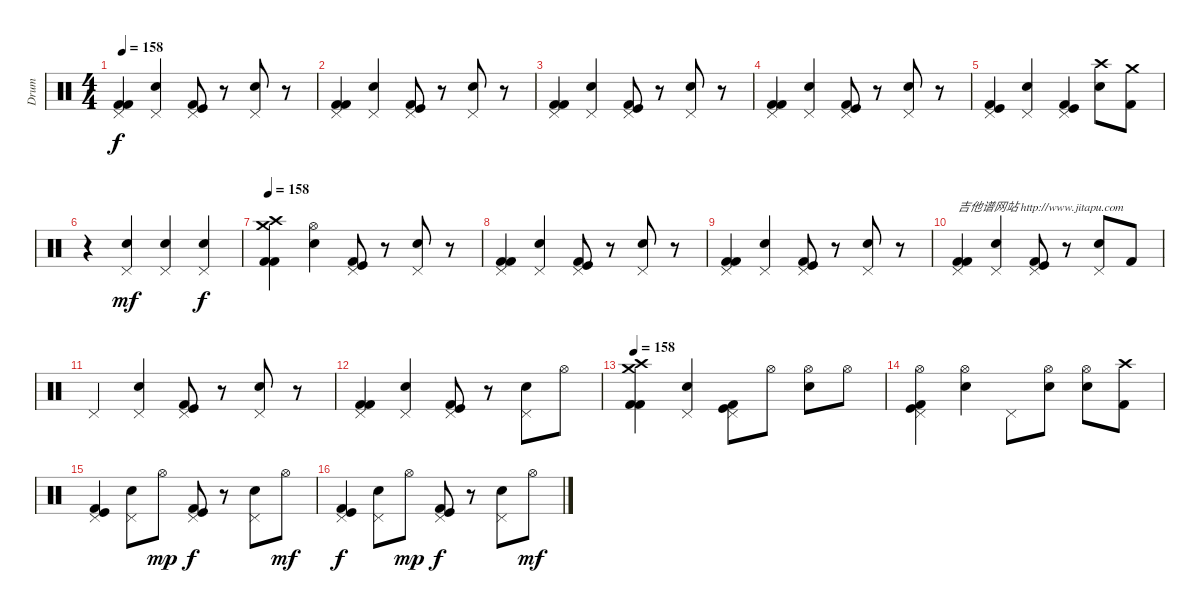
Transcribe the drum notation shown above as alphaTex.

\track ("Drum" "Drum") {instrument percussion}
\staff {score}
\articulation defaults
\ts (4 4)
\tempo 158
\clef neutral
\ks c
("Pedal Hi-Hat (hit)" "Kick (hit) 2" "Kick (hit) 2").4{dy f} ("Pedal Hi-Hat (hit)" "Electric Snare (hit)").4 ("Pedal Hi-Hat (hit)" "Kick (hit) 2" "Kick (hit)").8 r.8 ("Pedal Hi-Hat (hit)" "Electric Snare (hit)").8 r.8 |
("Pedal Hi-Hat (hit)" "Kick (hit) 2" "Kick (hit) 2").4 ("Pedal Hi-Hat (hit)" "Electric Snare (hit)").4 ("Pedal Hi-Hat (hit)" "Kick (hit) 2" "Kick (hit)").8 r.8 ("Pedal Hi-Hat (hit)" "Electric Snare (hit)").8 r.8 |
("Pedal Hi-Hat (hit)" "Kick (hit) 2" "Kick (hit) 2").4 ("Pedal Hi-Hat (hit)" "Electric Snare (hit)").4 ("Pedal Hi-Hat (hit)" "Kick (hit) 2" "Kick (hit)").8 r.8 ("Pedal Hi-Hat (hit)" "Electric Snare (hit)").8 r.8 |
("Pedal Hi-Hat (hit)" "Kick (hit) 2" "Kick (hit) 2").4 ("Pedal Hi-Hat (hit)" "Electric Snare (hit)").4 ("Pedal Hi-Hat (hit)" "Kick (hit) 2" "Kick (hit)").8 r.8 ("Pedal Hi-Hat (hit)" "Electric Snare (hit)").8 r.8 |
("Pedal Hi-Hat (hit)" "Kick (hit) 2" "Kick (hit)").4 ("Electric Snare (hit)" "Pedal Hi-Hat (hit)").4 ("Kick (hit) 2" "Kick (hit)" "Pedal Hi-Hat (hit)").4 ("Crash high (hit)" "Electric Snare (hit)").8 ("Crash medium (hit)" "Kick (hit) 2").8 |
r.4 ("Pedal Hi-Hat (hit)" "Electric Snare (hit)").4{dy mf} ("Pedal Hi-Hat (hit)" "Electric Snare (hit)").4 ("Pedal Hi-Hat (hit)" "Electric Snare (hit)").4{dy f} |
\tempo 158
("Crash high (hit)" "Kick (hit) 2" "Kick (hit) 2" "Crash medium (hit)").4 ("Hi-Hat (open)" "Electric Snare (hit)").4 ("Pedal Hi-Hat (hit)" "Kick (hit) 2" "Kick (hit)").8 r.8 ("Pedal Hi-Hat (hit)" "Electric Snare (hit)").8 r.8 |
("Pedal Hi-Hat (hit)" "Kick (hit) 2" "Kick (hit) 2").4 ("Pedal Hi-Hat (hit)" "Electric Snare (hit)").4 ("Pedal Hi-Hat (hit)" "Kick (hit) 2" "Kick (hit)").8 r.8 ("Pedal Hi-Hat (hit)" "Electric Snare (hit)").8 r.8 |
("Pedal Hi-Hat (hit)" "Kick (hit) 2" "Kick (hit) 2").4 ("Pedal Hi-Hat (hit)" "Electric Snare (hit)").4 ("Pedal Hi-Hat (hit)" "Kick (hit) 2" "Kick (hit)").8 r.8 ("Pedal Hi-Hat (hit)" "Electric Snare (hit)").8 r.8 |
("Pedal Hi-Hat (hit)" "Kick (hit) 2" "Kick (hit) 2").4{txt "吉他谱网站 http://www.jitapu.com"} ("Pedal Hi-Hat (hit)" "Electric Snare (hit)").4 ("Pedal Hi-Hat (hit)" "Kick (hit) 2" "Kick (hit)").8 r.8 ("Pedal Hi-Hat (hit)" "Electric Snare (hit)").8 "Kick (hit) 2".8 |
"Pedal Hi-Hat (hit)".4 ("Pedal Hi-Hat (hit)" "Electric Snare (hit)").4 ("Pedal Hi-Hat (hit)" "Kick (hit) 2" "Kick (hit)").8 r.8 ("Pedal Hi-Hat (hit)" "Electric Snare (hit)").8 r.8 |
("Pedal Hi-Hat (hit)" "Kick (hit) 2" "Kick (hit) 2").4 ("Pedal Hi-Hat (hit)" "Electric Snare (hit)").4 ("Pedal Hi-Hat (hit)" "Kick (hit) 2" "Kick (hit)").8 r.8 ("Pedal Hi-Hat (hit)" "Electric Snare (hit)").8 "Hi-Hat (open)".8 |
\tempo 158
("Crash high (hit)" "Kick (hit) 2" "Kick (hit) 2" "Crash medium (hit)").4 ("Pedal Hi-Hat (hit)" "Electric Snare (hit)").4 ("Pedal Hi-Hat (hit)" "Kick (hit) 2" "Kick (hit)").8 "Hi-Hat (open)".8 ("Hi-Hat (open)" "Electric Snare (hit)").8 "Hi-Hat (open)".8 |
("Hi-Hat (open)" "Pedal Hi-Hat (hit)" "Kick (hit) 2" "Kick (hit)").4 ("Hi-Hat (open)" "Electric Snare (hit)").4 "Pedal Hi-Hat (hit)".8 ("Hi-Hat (open)" "Electric Snare (hit)").8 ("Hi-Hat (open)" "Electric Snare (hit)").8 ("Crash high (hit)" "Kick (hit) 2").8 |
("Pedal Hi-Hat (hit)" "Kick (hit)" "Kick (hit) 2").4 ("Electric Snare (hit)" "Pedal Hi-Hat (hit)").8 "Hi-Hat (open)".8{dy mp} ("Kick (hit) 2" "Kick (hit)" "Pedal Hi-Hat (hit)").8{dy f} r.8 ("Pedal Hi-Hat (hit)" "Electric Snare (hit)").8 "Hi-Hat (open)".8{dy mf} |
("Pedal Hi-Hat (hit)" "Kick (hit)" "Kick (hit) 2").4{dy f} ("Electric Snare (hit)" "Pedal Hi-Hat (hit)").8 "Hi-Hat (open)".8{dy mp} ("Kick (hit) 2" "Kick (hit)" "Pedal Hi-Hat (hit)").8{dy f} r.8 ("Pedal Hi-Hat (hit)" "Electric Snare (hit)").8 "Hi-Hat (open)".8{dy mf}
